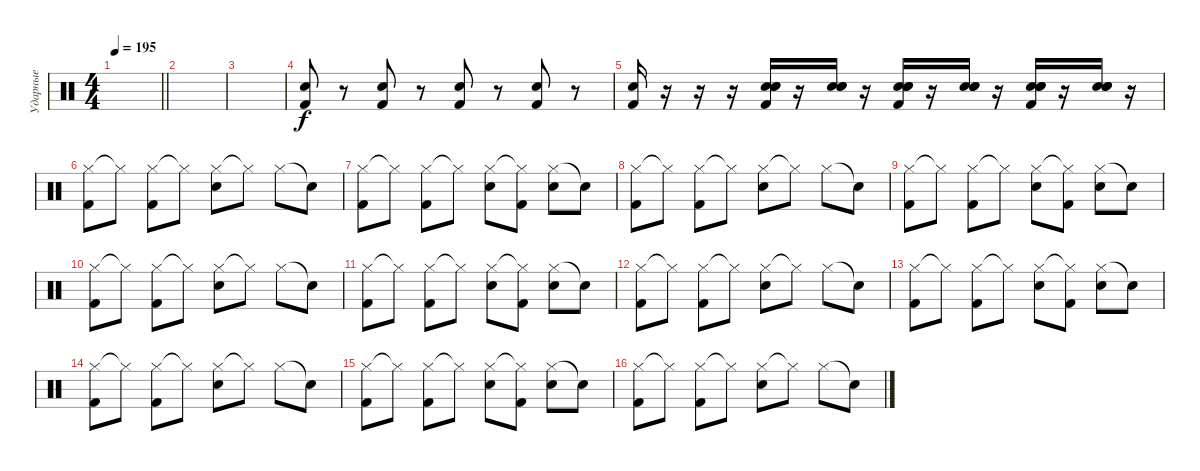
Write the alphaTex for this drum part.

\track ("Ударные" "Ударные") {instrument percussion}
\staff {score}
\articulation defaults
\ts (4 4)
\tempo 195
\clef neutral
\barLineRight lightlight
\ks c
|
|
|
("Snare (hit) 2" "Kick (hit) 2").8 r.8 ("Snare (hit) 2" "Kick (hit) 2").8 r.8 ("Snare (hit) 2" "Kick (hit) 2").8 r.8 ("Snare (hit) 2" "Kick (hit) 2").8 r.8 |
("Snare (hit) 2" "Kick (hit) 2").16 r.16 r.16 r.16 ("Snare (hit) 2" "Snare (hit) 2" "Snare (hit) 2" "Kick (hit) 2").16 r.16 ("Snare (hit) 2" "Snare (hit) 2" "Snare (hit) 2").16 r.16 ("Snare (hit) 2" "Snare (hit) 2" "Snare (hit) 2" "Kick (hit) 2").16 r.16 ("Snare (hit) 2" "Snare (hit) 2" "Snare (hit) 2").16 r.16 ("Snare (hit) 2" "Snare (hit) 2" "Snare (hit) 2" "Kick (hit) 2").16 r.16 ("Snare (hit) 2" "Snare (hit) 2" "Snare (hit) 2").16 r.16 |
("Hi-Hat (closed)" "Kick (hit) 2").8 "Hi-Hat (closed)"{t}.8 ("Hi-Hat (closed)" "Kick (hit) 2").8 "Hi-Hat (closed)"{t}.8 ("Hi-Hat (closed)" "Snare (hit) 2").8 "Hi-Hat (closed)"{t}.8 "Hi-Hat (closed)".8 "Snare (hit)"{t}.8 |
("Hi-Hat (closed)" "Kick (hit) 2").8 "Hi-Hat (closed)"{t}.8 ("Hi-Hat (closed)" "Kick (hit) 2").8 "Hi-Hat (closed)"{t}.8 ("Hi-Hat (closed)" "Snare (hit) 2").8 ("Hi-Hat (closed)"{t} "Kick (hit) 2").8 ("Hi-Hat (closed)" "Snare (hit) 2").8 "Snare (hit)"{t}.8 |
("Hi-Hat (closed)" "Kick (hit) 2").8 "Hi-Hat (closed)"{t}.8 ("Hi-Hat (closed)" "Kick (hit) 2").8 "Hi-Hat (closed)"{t}.8 ("Hi-Hat (closed)" "Snare (hit) 2").8 "Hi-Hat (closed)"{t}.8 "Hi-Hat (closed)".8 "Snare (hit)"{t}.8 |
("Hi-Hat (closed)" "Kick (hit) 2").8 "Hi-Hat (closed)"{t}.8 ("Hi-Hat (closed)" "Kick (hit) 2").8 "Hi-Hat (closed)"{t}.8 ("Hi-Hat (closed)" "Snare (hit) 2").8 ("Hi-Hat (closed)"{t} "Kick (hit) 2").8 ("Hi-Hat (closed)" "Snare (hit) 2").8 "Snare (hit)"{t}.8 |
("Hi-Hat (closed)" "Kick (hit) 2").8 "Hi-Hat (closed)"{t}.8 ("Hi-Hat (closed)" "Kick (hit) 2").8 "Hi-Hat (closed)"{t}.8 ("Hi-Hat (closed)" "Snare (hit) 2").8 "Hi-Hat (closed)"{t}.8 "Hi-Hat (closed)".8 "Snare (hit)"{t}.8 |
("Hi-Hat (closed)" "Kick (hit) 2").8 "Hi-Hat (closed)"{t}.8 ("Hi-Hat (closed)" "Kick (hit) 2").8 "Hi-Hat (closed)"{t}.8 ("Hi-Hat (closed)" "Snare (hit) 2").8 ("Hi-Hat (closed)"{t} "Kick (hit) 2").8 ("Hi-Hat (closed)" "Snare (hit) 2").8 "Snare (hit)"{t}.8 |
("Hi-Hat (closed)" "Kick (hit) 2").8 "Hi-Hat (closed)"{t}.8 ("Hi-Hat (closed)" "Kick (hit) 2").8 "Hi-Hat (closed)"{t}.8 ("Hi-Hat (closed)" "Snare (hit) 2").8 "Hi-Hat (closed)"{t}.8 "Hi-Hat (closed)".8 "Snare (hit)"{t}.8 |
("Hi-Hat (closed)" "Kick (hit) 2").8 "Hi-Hat (closed)"{t}.8 ("Hi-Hat (closed)" "Kick (hit) 2").8 "Hi-Hat (closed)"{t}.8 ("Hi-Hat (closed)" "Snare (hit) 2").8 ("Hi-Hat (closed)"{t} "Kick (hit) 2").8 ("Hi-Hat (closed)" "Snare (hit) 2").8 "Snare (hit)"{t}.8 |
("Hi-Hat (closed)" "Kick (hit) 2").8 "Hi-Hat (closed)"{t}.8 ("Hi-Hat (closed)" "Kick (hit) 2").8 "Hi-Hat (closed)"{t}.8 ("Hi-Hat (closed)" "Snare (hit) 2").8 "Hi-Hat (closed)"{t}.8 "Hi-Hat (closed)".8 "Snare (hit)"{t}.8 |
("Hi-Hat (closed)" "Kick (hit) 2").8 "Hi-Hat (closed)"{t}.8 ("Hi-Hat (closed)" "Kick (hit) 2").8 "Hi-Hat (closed)"{t}.8 ("Hi-Hat (closed)" "Snare (hit) 2").8 ("Hi-Hat (closed)"{t} "Kick (hit) 2").8 ("Hi-Hat (closed)" "Snare (hit) 2").8 "Snare (hit)"{t}.8 |
("Hi-Hat (closed)" "Kick (hit) 2").8 "Hi-Hat (closed)"{t}.8 ("Hi-Hat (closed)" "Kick (hit) 2").8 "Hi-Hat (closed)"{t}.8 ("Hi-Hat (closed)" "Snare (hit) 2").8 "Hi-Hat (closed)"{t}.8 "Hi-Hat (closed)".8 "Snare (hit)"{t}.8
